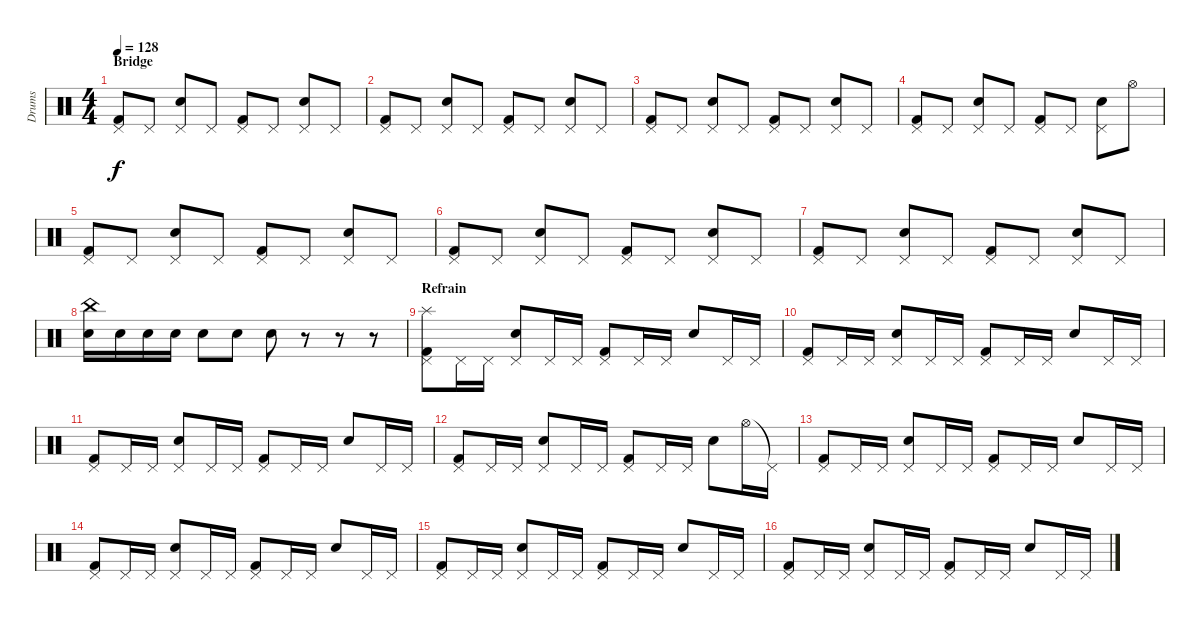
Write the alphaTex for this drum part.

\track ("Drums" "Drums") {instrument percussion}
\staff {score}
\articulation defaults
\ts (4 4)
\section ("" "Bridge")
\tempo 128
\clef neutral
\ks c
("Pedal Hi-Hat (hit)" "Kick (hit) 2").8{dy f} "Pedal Hi-Hat (hit)".8 ("Pedal Hi-Hat (hit)" "Snare (hit) 2").8 "Pedal Hi-Hat (hit)".8 ("Pedal Hi-Hat (hit)" "Kick (hit) 2").8 "Pedal Hi-Hat (hit)".8 ("Pedal Hi-Hat (hit)" "Snare (hit) 2").8 "Pedal Hi-Hat (hit)".8 |
("Pedal Hi-Hat (hit)" "Kick (hit) 2").8 "Pedal Hi-Hat (hit)".8 ("Pedal Hi-Hat (hit)" "Snare (hit) 2").8 "Pedal Hi-Hat (hit)".8 ("Pedal Hi-Hat (hit)" "Kick (hit) 2").8 "Pedal Hi-Hat (hit)".8 ("Pedal Hi-Hat (hit)" "Snare (hit) 2").8 "Pedal Hi-Hat (hit)".8 |
("Pedal Hi-Hat (hit)" "Kick (hit) 2").8 "Pedal Hi-Hat (hit)".8 ("Pedal Hi-Hat (hit)" "Snare (hit) 2").8 "Pedal Hi-Hat (hit)".8 ("Pedal Hi-Hat (hit)" "Kick (hit) 2").8 "Pedal Hi-Hat (hit)".8 ("Pedal Hi-Hat (hit)" "Snare (hit) 2").8 "Pedal Hi-Hat (hit)".8 |
("Pedal Hi-Hat (hit)" "Kick (hit) 2").8 "Pedal Hi-Hat (hit)".8 ("Pedal Hi-Hat (hit)" "Snare (hit) 2").8 "Pedal Hi-Hat (hit)".8 ("Pedal Hi-Hat (hit)" "Kick (hit) 2").8 "Pedal Hi-Hat (hit)".8 ("Pedal Hi-Hat (hit)" "Snare (hit) 2").8 "Hi-Hat (open)".8 |
("Pedal Hi-Hat (hit)" "Kick (hit) 2").8 "Pedal Hi-Hat (hit)".8 ("Pedal Hi-Hat (hit)" "Snare (hit) 2").8 "Pedal Hi-Hat (hit)".8 ("Pedal Hi-Hat (hit)" "Kick (hit) 2").8 "Pedal Hi-Hat (hit)".8 ("Pedal Hi-Hat (hit)" "Snare (hit) 2").8 "Pedal Hi-Hat (hit)".8 |
("Pedal Hi-Hat (hit)" "Kick (hit) 2").8 "Pedal Hi-Hat (hit)".8 ("Pedal Hi-Hat (hit)" "Snare (hit) 2").8 "Pedal Hi-Hat (hit)".8 ("Pedal Hi-Hat (hit)" "Kick (hit) 2").8 "Pedal Hi-Hat (hit)".8 ("Pedal Hi-Hat (hit)" "Snare (hit) 2").8 "Pedal Hi-Hat (hit)".8 |
("Pedal Hi-Hat (hit)" "Kick (hit) 2").8 "Pedal Hi-Hat (hit)".8 ("Pedal Hi-Hat (hit)" "Snare (hit) 2").8 "Pedal Hi-Hat (hit)".8 ("Pedal Hi-Hat (hit)" "Kick (hit) 2").8 "Pedal Hi-Hat (hit)".8 ("Pedal Hi-Hat (hit)" "Snare (hit) 2").8 "Pedal Hi-Hat (hit)".8 |
("China (hit)" "Snare (hit) 2").16 "Snare (hit) 2".16 "Snare (hit) 2".16 "Snare (hit) 2".16 "Snare (hit) 2".8 "Snare (hit) 2".8 "Snare (hit) 2".8 r.8 r.8 r.8 |
\section ("" "Refrain")
("Splash (hit)" "Kick (hit) 2" "Pedal Hi-Hat (hit)").8 "Pedal Hi-Hat (hit)".16 "Pedal Hi-Hat (hit)".16 ("Snare (hit) 2" "Pedal Hi-Hat (hit)").8 "Pedal Hi-Hat (hit)".16 "Pedal Hi-Hat (hit)".16 ("Kick (hit) 2" "Pedal Hi-Hat (hit)").8 "Pedal Hi-Hat (hit)".16 "Pedal Hi-Hat (hit)".16 "Snare (hit) 2".8 "Pedal Hi-Hat (hit)".16 "Pedal Hi-Hat (hit)".16 |
("Kick (hit) 2" "Pedal Hi-Hat (hit)").8 "Pedal Hi-Hat (hit)".16 "Pedal Hi-Hat (hit)".16 ("Snare (hit) 2" "Pedal Hi-Hat (hit)").8 "Pedal Hi-Hat (hit)".16 "Pedal Hi-Hat (hit)".16 ("Kick (hit) 2" "Pedal Hi-Hat (hit)").8 "Pedal Hi-Hat (hit)".16 "Pedal Hi-Hat (hit)".16 "Snare (hit) 2".8 "Pedal Hi-Hat (hit)".16 "Pedal Hi-Hat (hit)".16 |
("Kick (hit) 2" "Pedal Hi-Hat (hit)").8 "Pedal Hi-Hat (hit)".16 "Pedal Hi-Hat (hit)".16 ("Snare (hit) 2" "Pedal Hi-Hat (hit)").8 "Pedal Hi-Hat (hit)".16 "Pedal Hi-Hat (hit)".16 ("Kick (hit) 2" "Pedal Hi-Hat (hit)").8 "Pedal Hi-Hat (hit)".16 "Pedal Hi-Hat (hit)".16 "Snare (hit) 2".8 "Pedal Hi-Hat (hit)".16 "Pedal Hi-Hat (hit)".16 |
("Kick (hit) 2" "Pedal Hi-Hat (hit)").8 "Pedal Hi-Hat (hit)".16 "Pedal Hi-Hat (hit)".16 ("Snare (hit) 2" "Pedal Hi-Hat (hit)").8 "Pedal Hi-Hat (hit)".16 "Pedal Hi-Hat (hit)".16 ("Kick (hit) 2" "Pedal Hi-Hat (hit)").8 "Pedal Hi-Hat (hit)".16 "Pedal Hi-Hat (hit)".16 "Snare (hit) 2".8 "Hi-Hat (open)".16 "Pedal Hi-Hat (hit)"{t}.16 |
("Kick (hit) 2" "Pedal Hi-Hat (hit)").8 "Pedal Hi-Hat (hit)".16 "Pedal Hi-Hat (hit)".16 ("Snare (hit) 2" "Pedal Hi-Hat (hit)").8 "Pedal Hi-Hat (hit)".16 "Pedal Hi-Hat (hit)".16 ("Kick (hit) 2" "Pedal Hi-Hat (hit)").8 "Pedal Hi-Hat (hit)".16 "Pedal Hi-Hat (hit)".16 "Snare (hit) 2".8 "Pedal Hi-Hat (hit)".16 "Pedal Hi-Hat (hit)".16 |
("Kick (hit) 2" "Pedal Hi-Hat (hit)").8 "Pedal Hi-Hat (hit)".16 "Pedal Hi-Hat (hit)".16 ("Snare (hit) 2" "Pedal Hi-Hat (hit)").8 "Pedal Hi-Hat (hit)".16 "Pedal Hi-Hat (hit)".16 ("Kick (hit) 2" "Pedal Hi-Hat (hit)").8 "Pedal Hi-Hat (hit)".16 "Pedal Hi-Hat (hit)".16 "Snare (hit) 2".8 "Pedal Hi-Hat (hit)".16 "Pedal Hi-Hat (hit)".16 |
("Kick (hit) 2" "Pedal Hi-Hat (hit)").8 "Pedal Hi-Hat (hit)".16 "Pedal Hi-Hat (hit)".16 ("Snare (hit) 2" "Pedal Hi-Hat (hit)").8 "Pedal Hi-Hat (hit)".16 "Pedal Hi-Hat (hit)".16 ("Kick (hit) 2" "Pedal Hi-Hat (hit)").8 "Pedal Hi-Hat (hit)".16 "Pedal Hi-Hat (hit)".16 "Snare (hit) 2".8 "Pedal Hi-Hat (hit)".16 "Pedal Hi-Hat (hit)".16 |
("Kick (hit) 2" "Pedal Hi-Hat (hit)").8 "Pedal Hi-Hat (hit)".16 "Pedal Hi-Hat (hit)".16 ("Snare (hit) 2" "Pedal Hi-Hat (hit)").8 "Pedal Hi-Hat (hit)".16 "Pedal Hi-Hat (hit)".16 ("Kick (hit) 2" "Pedal Hi-Hat (hit)").8 "Pedal Hi-Hat (hit)".16 "Pedal Hi-Hat (hit)".16 "Snare (hit) 2".8 "Pedal Hi-Hat (hit)".16 "Pedal Hi-Hat (hit)".16
